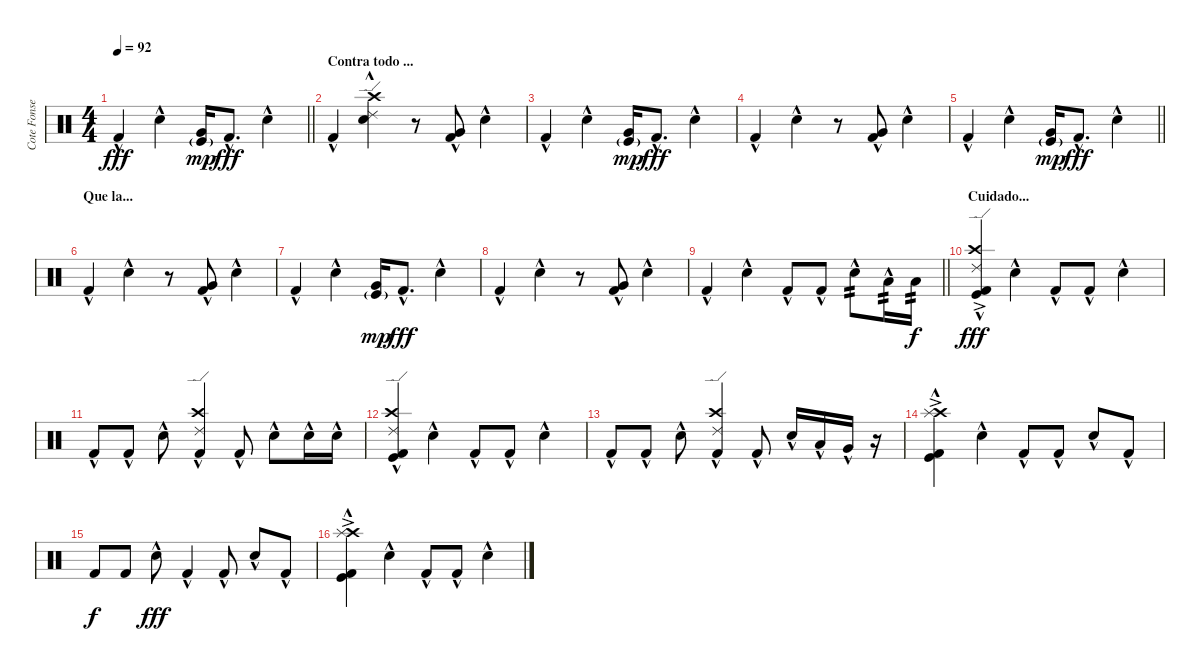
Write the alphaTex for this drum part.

\track ("Cote Fonsea" "Cote Fonse") {instrument percussion}
\staff {score}
\articulation defaults
\ts (4 4)
\tempo 92
\clef neutral
\barLineRight lightlight
\ks c "Kick (hit) 2"{hac}.4{dy fff} "Snare (hit) 2"{hac}.4
("Very Low Tom (hit)" "Kick (hit)"{g}).16{dy mp} "Kick (hit) 2"{hac}.8{d dy fff} "Snare (hit) 2"{hac}.4 |
\section ("" "Contra todo ...")
"Kick (hit) 2"{hac}.4 ("Crash high (hit)" "Ride (edge) 2" "Snare (hit) 2"{hac}).4 r.8 ("Kick (hit) 2"{hac} "Very Low Tom (hit)"{hac}).8 "Snare (hit) 2"{hac}.4 |
"Kick (hit) 2"{hac}.4 "Snare (hit) 2"{hac}.4 ("Very Low Tom (hit)" "Kick (hit)"{g}).16{dy mp} "Kick (hit) 2"{hac}.8{d dy fff} "Snare (hit) 2"{hac}.4 |
"Kick (hit) 2"{hac}.4 "Snare (hit) 2"{hac}.4 r.8 ("Kick (hit) 2"{hac} "Very Low Tom (hit)"{hac}).8 "Snare (hit) 2"{hac}.4 |
\barLineRight lightlight "Kick (hit) 2"{hac}.4 "Snare (hit) 2"{hac}.4
("Very Low Tom (hit)" "Kick (hit)"{g}).16{dy mp} "Kick (hit) 2"{hac}.8{d dy fff} "Snare (hit) 2"{hac}.4 |
\section ("" "Que la...")
"Kick (hit) 2"{hac}.4 "Snare (hit) 2"{hac}.4 r.8 ("Kick (hit) 2"{hac} "Very Low Tom (hit)"{hac}).8 "Snare (hit) 2"{hac}.4 |
"Kick (hit) 2"{hac}.4 "Snare (hit) 2"{hac}.4 ("Very Low Tom (hit)" "Kick (hit)"{g}).16{dy mp} "Kick (hit) 2"{hac}.8{d dy fff} "Snare (hit) 2"{hac}.4 |
"Kick (hit) 2"{hac}.4 "Snare (hit) 2"{hac}.4 r.8 ("Kick (hit) 2"{hac} "Very Low Tom (hit)"{hac}).8 "Snare (hit) 2"{hac}.4 |
\barLineRight lightlight "Kick (hit) 2"{hac}.4 "Snare (hit) 2"{hac}.4 "Kick (hit) 2"{hac}.8 "Kick (hit) 2"{hac}.8 "Snare (hit) 2"{hac}.8{tp 2} "Low Tom (hit)"{hac}.16{tp 2} "Low Floor Tom (hit)".16{tp 2 dy f}
|
\section ("" "Cuidado...")
("Ride (edge) 2"{ac} "Crash high (hit)"{ac} "Kick (hit) 2"{hac} "Kick (hit)"{hac}).4{dy fff} "Snare (hit) 2"{hac}.4 "Kick (hit) 2"{hac}.8 "Kick (hit) 2"{hac}.8 "Snare (hit) 2"{hac}.4 |
"Kick (hit) 2"{hac}.8 "Kick (hit) 2"{hac}.8 "Snare (hit) 2"{hac}.8 ("Ride (edge) 2" "Crash high (hit)" "Kick (hit) 2"{hac}).4 "Kick (hit) 2"{hac}.8 "Snare (hit) 2"{hac}.8 "Snare (hit) 2"{hac}.16 "Snare (hit) 2"{hac}.16 |
("Crash high (hit)"{hac} "Ride (edge) 2"{hac} "Kick (hit) 2"{hac} "Kick (hit)"{hac}).4 "Snare (hit) 2"{hac}.4 "Kick (hit) 2"{hac}.8 "Kick (hit) 2"{hac}.8 "Snare (hit) 2"{hac}.4 |
"Kick (hit) 2"{hac}.8 "Kick (hit) 2"{hac}.8 "Snare (hit) 2"{hac}.8 ("Ride (edge) 2" "Crash high (hit)" "Kick (hit) 2"{hac}).4 "Kick (hit) 2"{hac}.8 "Snare (hit) 2"{hac}.16 "Low Tom (hit)"{hac}.16 "Very Low Tom (hit)"{hac}.16 r.16 |
("Crash high (hit)"{ac} "Splash (hit)" "Kick (hit) 2"{hac} "Kick (hit)"{hac}).4 "Snare (hit) 2"{hac}.4 "Kick (hit) 2"{hac}.8 "Kick (hit) 2"{hac}.8 "Snare (hit) 2"{hac}.8 "Kick (hit) 2"{hac}.8 |
"Kick (hit) 2".8{dy f} "Kick (hit) 2".8 "Snare (hit) 2"{hac}.8{dy fff} "Kick (hit) 2"{hac}.4 "Kick (hit) 2"{hac}.8 "Snare (hit) 2"{hac}.8 "Kick (hit) 2"{hac}.8 |
("Crash high (hit)"{ac} "Splash (hit)" "Kick (hit) 2"{hac} "Kick (hit)"{hac}).4 "Snare (hit) 2"{hac}.4 "Kick (hit) 2"{hac}.8 "Kick (hit) 2"{hac}.8 "Snare (hit) 2"{hac}.4
